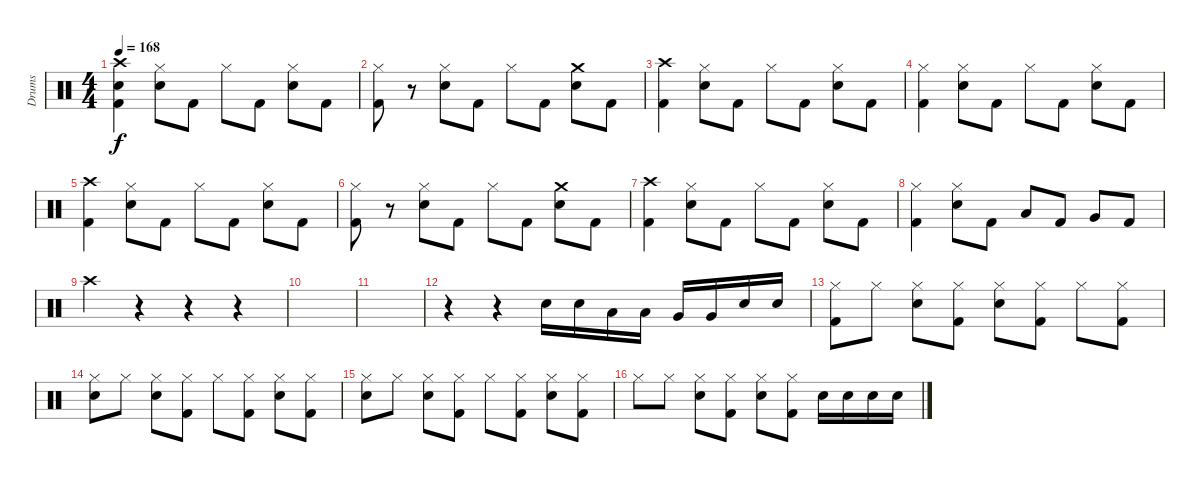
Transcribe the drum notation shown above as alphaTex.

\track ("Drums" "Drums") {instrument percussion}
\staff {score}
\articulation defaults
\ts (4 4)
\tempo 168
\clef neutral
\ks c
("Crash high (hit)" "Snare (hit) 2" "Kick (hit) 2").4{dy f} ("Hi-Hat (closed)" "Snare (hit) 2").8 "Kick (hit) 2".8 "Hi-Hat (closed)".8 "Kick (hit) 2".8 ("Hi-Hat (closed)" "Snare (hit) 2").8 "Kick (hit) 2".8 |
("Hi-Hat (closed)" "Kick (hit) 2").8 r.8 ("Hi-Hat (closed)" "Snare (hit) 2").8 "Kick (hit) 2".8 "Hi-Hat (closed)".8 "Kick (hit) 2".8 ("Crash medium (hit)" "Snare (hit) 2").8 "Kick (hit) 2".8 |
("Crash high (hit)" "Kick (hit) 2").4 ("Hi-Hat (closed)" "Snare (hit) 2").8 "Kick (hit) 2".8 "Hi-Hat (closed)".8 "Kick (hit) 2".8 ("Hi-Hat (closed)" "Snare (hit) 2").8 "Kick (hit) 2".8 |
("Hi-Hat (closed)" "Kick (hit) 2").4 ("Hi-Hat (closed)" "Snare (hit) 2").8 "Kick (hit) 2".8 "Hi-Hat (closed)".8 "Kick (hit) 2".8 ("Hi-Hat (closed)" "Snare (hit) 2").8 "Kick (hit) 2".8 |
("Crash high (hit)" "Kick (hit) 2").4 ("Hi-Hat (closed)" "Snare (hit) 2").8 "Kick (hit) 2".8 "Hi-Hat (closed)".8 "Kick (hit) 2".8 ("Hi-Hat (closed)" "Snare (hit) 2").8 "Kick (hit) 2".8 |
("Hi-Hat (closed)" "Kick (hit) 2").8 r.8 ("Hi-Hat (closed)" "Snare (hit) 2").8 "Kick (hit) 2".8 "Hi-Hat (closed)".8 "Kick (hit) 2".8 ("Crash medium (hit)" "Snare (hit) 2").8 "Kick (hit) 2".8 |
("Crash high (hit)" "Kick (hit) 2").4 ("Hi-Hat (closed)" "Snare (hit) 2").8 "Kick (hit) 2".8 "Hi-Hat (closed)".8 "Kick (hit) 2".8 ("Hi-Hat (closed)" "Snare (hit) 2").8 "Kick (hit) 2".8 |
("Hi-Hat (closed)" "Kick (hit) 2").4 ("Hi-Hat (closed)" "Snare (hit) 2").8 "Kick (hit) 2".8 "Low Tom (hit)".8 "Kick (hit) 2".8 "Very Low Tom (hit)".8 "Kick (hit) 2".8 |
"Crash high (hit)".4 r.4 r.4 r.4 |
|
|
r.4 r.4 "Snare (hit) 2".16 "Snare (hit) 2".16 "Low Tom (hit)".16 "Low Tom (hit)".16 "Very Low Tom (hit)".16 "Very Low Tom (hit)".16 "Snare (hit) 2".16 "Snare (hit) 2".16 |
("Hi-Hat (closed)" "Kick (hit) 2").8 "Hi-Hat (closed)".8 ("Hi-Hat (closed)" "Snare (hit) 2").8 ("Hi-Hat (closed)" "Kick (hit) 2").8 ("Hi-Hat (closed)" "Snare (hit) 2").8 ("Hi-Hat (closed)" "Kick (hit) 2").8 "Hi-Hat (closed)".8 ("Hi-Hat (closed)" "Kick (hit) 2").8 |
("Hi-Hat (closed)" "Snare (hit) 2").8 "Hi-Hat (closed)".8 ("Hi-Hat (closed)" "Snare (hit) 2").8 ("Hi-Hat (closed)" "Kick (hit) 2").8 "Hi-Hat (closed)".8 ("Hi-Hat (closed)" "Kick (hit) 2").8 ("Hi-Hat (closed)" "Snare (hit) 2").8 ("Hi-Hat (closed)" "Kick (hit) 2").8 |
("Hi-Hat (closed)" "Snare (hit) 2").8 "Hi-Hat (closed)".8 ("Hi-Hat (closed)" "Snare (hit) 2").8 ("Hi-Hat (closed)" "Kick (hit) 2").8 "Hi-Hat (closed)".8 ("Hi-Hat (closed)" "Kick (hit) 2").8 ("Hi-Hat (closed)" "Snare (hit) 2").8 ("Hi-Hat (closed)" "Kick (hit) 2").8 |
"Hi-Hat (closed)".8 "Hi-Hat (closed)".8 ("Hi-Hat (closed)" "Snare (hit) 2").8 ("Hi-Hat (closed)" "Kick (hit) 2").8 ("Hi-Hat (closed)" "Snare (hit) 2").8 ("Hi-Hat (closed)" "Kick (hit) 2").8 "Snare (hit) 2".16 "Snare (hit) 2".16 "Snare (hit) 2".16 "Snare (hit) 2".16
